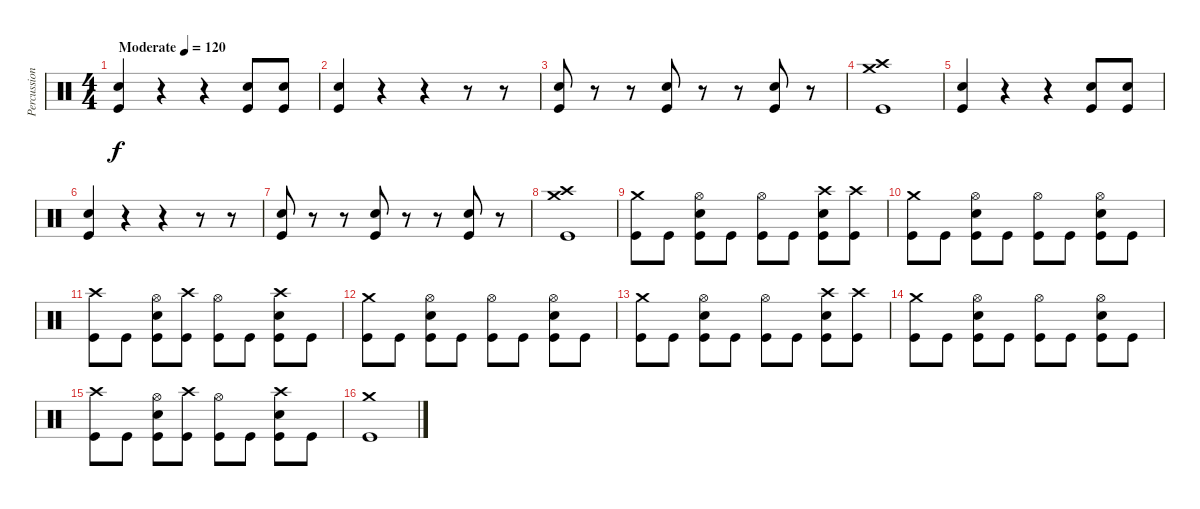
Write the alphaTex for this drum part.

\track ("Percussion" "Percussion") {instrument percussion}
\staff {score}
\articulation defaults
\ts (4 4)
\tempo (120 "Moderate")
\clef neutral
\ks c
("Snare (hit) 2" "Kick (hit)").4{dy f} r.4 r.4 ("Snare (hit) 2" "Kick (hit)").8 ("Snare (hit) 2" "Kick (hit)").8 |
("Snare (hit) 2" "Kick (hit)").4 r.4 r.4 r.8 r.8 |
("Snare (hit) 2" "Kick (hit)").8 r.8 r.8 ("Snare (hit) 2" "Kick (hit)").8 r.8 r.8 ("Snare (hit) 2" "Kick (hit)").8 r.8 |
("Crash medium (hit)" "Crash high (hit)" "Kick (hit)").1 |
("Snare (hit) 2" "Kick (hit)").4 r.4 r.4 ("Snare (hit) 2" "Kick (hit)").8 ("Snare (hit) 2" "Kick (hit)").8 |
("Snare (hit) 2" "Kick (hit)").4 r.4 r.4 r.8 r.8 |
("Snare (hit) 2" "Kick (hit)").8 r.8 r.8 ("Snare (hit) 2" "Kick (hit)").8 r.8 r.8 ("Snare (hit) 2" "Kick (hit)").8 r.8 |
("Crash medium (hit)" "Crash high (hit)" "Kick (hit)").1 |
("Crash medium (hit)" "Kick (hit)").8 "Kick (hit)".8 ("Hi-Hat (open)" "Snare (hit) 2" "Kick (hit)").8 "Kick (hit)".8 ("Hi-Hat (open)" "Kick (hit)").8 "Kick (hit)".8 ("Crash high (hit)" "Snare (hit) 2" "Kick (hit)").8 ("Crash high (hit)" "Kick (hit)").8 |
("Crash medium (hit)" "Kick (hit)").8 "Kick (hit)".8 ("Hi-Hat (open)" "Snare (hit) 2" "Kick (hit)").8 "Kick (hit)".8 ("Hi-Hat (open)" "Kick (hit)").8 "Kick (hit)".8 ("Hi-Hat (open)" "Snare (hit) 2" "Kick (hit)").8 "Kick (hit)".8 |
("Crash high (hit)" "Kick (hit)").8 "Kick (hit)".8 ("Hi-Hat (open)" "Snare (hit) 2" "Kick (hit)").8 ("Crash high (hit)" "Kick (hit)").8 ("Hi-Hat (open)" "Kick (hit)").8 "Kick (hit)".8 ("Crash high (hit)" "Snare (hit) 2" "Kick (hit)").8 "Kick (hit)".8 |
("Crash medium (hit)" "Kick (hit)").8 "Kick (hit)".8 ("Hi-Hat (open)" "Snare (hit) 2" "Kick (hit)").8 "Kick (hit)".8 ("Hi-Hat (open)" "Kick (hit)").8 "Kick (hit)".8 ("Hi-Hat (open)" "Snare (hit) 2" "Kick (hit)").8 "Kick (hit)".8 |
("Crash medium (hit)" "Kick (hit)").8 "Kick (hit)".8 ("Hi-Hat (open)" "Snare (hit) 2" "Kick (hit)").8 "Kick (hit)".8 ("Hi-Hat (open)" "Kick (hit)").8 "Kick (hit)".8 ("Crash high (hit)" "Snare (hit) 2" "Kick (hit)").8 ("Crash high (hit)" "Kick (hit)").8 |
("Crash medium (hit)" "Kick (hit)").8 "Kick (hit)".8 ("Hi-Hat (open)" "Snare (hit) 2" "Kick (hit)").8 "Kick (hit)".8 ("Hi-Hat (open)" "Kick (hit)").8 "Kick (hit)".8 ("Hi-Hat (open)" "Snare (hit) 2" "Kick (hit)").8 "Kick (hit)".8 |
("Crash high (hit)" "Kick (hit)").8 "Kick (hit)".8 ("Hi-Hat (open)" "Snare (hit) 2" "Kick (hit)").8 ("Crash high (hit)" "Kick (hit)").8 ("Hi-Hat (open)" "Kick (hit)").8 "Kick (hit)".8 ("Crash high (hit)" "Snare (hit) 2" "Kick (hit)").8 "Kick (hit)".8 |
("Crash medium (hit)" "Kick (hit)").1
